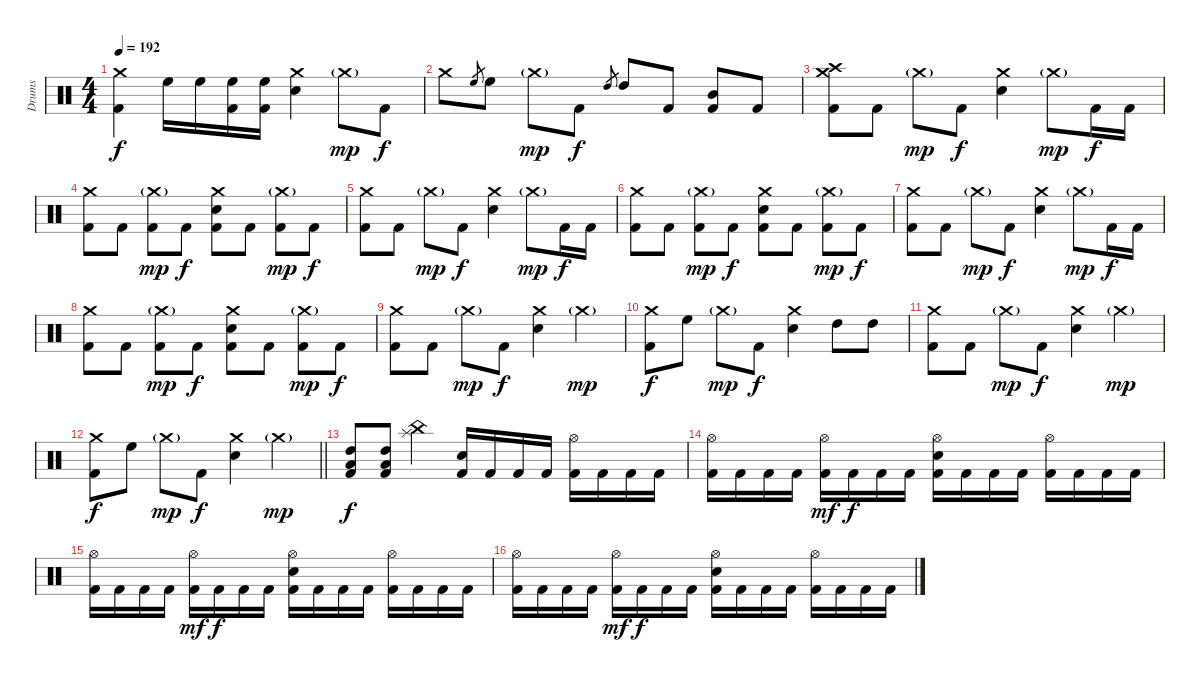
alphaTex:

\track ("Drums" "Drums") {instrument percussion}
\staff {score}
\articulation defaults
\ts (4 4)
\tempo 192
\clef neutral
\ks c
("Crash medium (hit)" "Kick (hit) 2").4{dy f} "High Floor Tom (hit)".16 "High Floor Tom (hit)".16 ("High Floor Tom (hit)" "Kick (hit) 2").16 ("High Floor Tom (hit)" "Kick (hit) 2").16 ("Crash medium (hit)" "Electric Snare (hit)").4 "Crash medium (hit)"{g}.8{dy mp} "Kick (hit) 2".8{dy f} |
"Crash medium (hit)".8 "High Floor Tom (hit)".8{gr} "High Floor Tom (hit)".8 "Crash medium (hit)"{g}.8{dy mp} "Kick (hit) 2".8{dy f} "High Tom (hit)".8{gr} "High Tom (hit)".8 "Kick (hit) 2".8 ("Mid Tom (hit)" "Kick (hit) 2").8 "Kick (hit) 2".8 |
("Crash high (hit)" "Crash medium (hit)" "Kick (hit) 2").8 "Kick (hit) 2".8 "Crash medium (hit)"{g}.8{dy mp} "Kick (hit) 2".8{dy f} ("Crash medium (hit)" "Electric Snare (hit)").4 "Crash medium (hit)"{g}.8{dy mp} "Kick (hit) 2".16{dy f} "Kick (hit) 2".16 |
("Crash medium (hit)" "Kick (hit) 2").8 "Kick (hit) 2".8 ("Crash medium (hit)"{g} "Kick (hit) 2").8{dy mp} "Kick (hit) 2".8{dy f} ("Crash medium (hit)" "Electric Snare (hit)" "Kick (hit) 2").8 "Kick (hit) 2".8 ("Crash medium (hit)"{g} "Kick (hit) 2").8{dy mp} "Kick (hit) 2".8{dy f} |
("Crash medium (hit)" "Kick (hit) 2").8 "Kick (hit) 2".8 "Crash medium (hit)"{g}.8{dy mp} "Kick (hit) 2".8{dy f} ("Crash medium (hit)" "Electric Snare (hit)").4 "Crash medium (hit)"{g}.8{dy mp} "Kick (hit) 2".16{dy f} "Kick (hit) 2".16 |
("Crash medium (hit)" "Kick (hit) 2").8 "Kick (hit) 2".8 ("Crash medium (hit)"{g} "Kick (hit) 2").8{dy mp} "Kick (hit) 2".8{dy f} ("Crash medium (hit)" "Electric Snare (hit)" "Kick (hit) 2").8 "Kick (hit) 2".8 ("Crash medium (hit)"{g} "Kick (hit) 2").8{dy mp} "Kick (hit) 2".8{dy f} |
("Crash medium (hit)" "Kick (hit) 2").8 "Kick (hit) 2".8 "Crash medium (hit)"{g}.8{dy mp} "Kick (hit) 2".8{dy f} ("Crash medium (hit)" "Electric Snare (hit)").4 "Crash medium (hit)"{g}.8{dy mp} "Kick (hit) 2".16{dy f} "Kick (hit) 2".16 |
("Crash medium (hit)" "Kick (hit) 2").8 "Kick (hit) 2".8 ("Crash medium (hit)"{g} "Kick (hit) 2").8{dy mp} "Kick (hit) 2".8{dy f} ("Crash medium (hit)" "Electric Snare (hit)" "Kick (hit) 2").8 "Kick (hit) 2".8 ("Crash medium (hit)"{g} "Kick (hit) 2").8{dy mp} "Kick (hit) 2".8{dy f} |
("Crash medium (hit)" "Kick (hit) 2").8 "Kick (hit) 2".8 "Crash medium (hit)"{g}.8{dy mp} "Kick (hit) 2".8{dy f} ("Crash medium (hit)" "Electric Snare (hit)").4 "Crash medium (hit)"{g}.4{dy mp} |
("Crash medium (hit)" "Kick (hit) 2").8{dy f} "High Floor Tom (hit)".8 "Crash medium (hit)"{g}.8{dy mp} "Kick (hit) 2".8{dy f} ("Crash medium (hit)" "Electric Snare (hit)").4 "High Tom (hit)".8 "High Tom (hit)".8 |
("Crash medium (hit)" "Kick (hit) 2").8 "Kick (hit) 2".8 "Crash medium (hit)"{g}.8{dy mp} "Kick (hit) 2".8{dy f} ("Crash medium (hit)" "Electric Snare (hit)").4 "Crash medium (hit)"{g}.4{dy mp} |
\barLineRight lightlight
("Crash medium (hit)" "Kick (hit) 2").8{dy f} "High Floor Tom (hit)".8 "Crash medium (hit)"{g}.8{dy mp} "Kick (hit) 2".8{dy f} ("Crash medium (hit)" "Electric Snare (hit)").4 "Crash medium (hit)"{g}.4{dy mp} |
("High Tom (hit)" "Low Tom (hit)" "Kick (hit) 2").8{dy f} ("High Tom (hit)" "Low Tom (hit)" "Kick (hit) 2").8 ("China (hit)" "Splash (hit)").4 ("Electric Snare (hit)" "Kick (hit) 2").16 "Kick (hit) 2".16 "Kick (hit) 2".16 "Kick (hit) 2".16 ("Hi-Hat (open)" "Kick (hit) 2").16 "Kick (hit) 2".16 "Kick (hit) 2".16 "Kick (hit) 2".16 |
("Hi-Hat (open)" "Kick (hit) 2").16 "Kick (hit) 2".16 "Kick (hit) 2".16 "Kick (hit) 2".16 ("Hi-Hat (open)" "Kick (hit) 2").16{dy mf} "Kick (hit) 2".16{dy f} "Kick (hit) 2".16 "Kick (hit) 2".16 ("Hi-Hat (open)" "Electric Snare (hit)" "Kick (hit) 2").16 "Kick (hit) 2".16 "Kick (hit) 2".16 "Kick (hit) 2".16 ("Hi-Hat (open)" "Kick (hit) 2").16 "Kick (hit) 2".16 "Kick (hit) 2".16 "Kick (hit) 2".16 |
("Hi-Hat (open)" "Kick (hit) 2").16 "Kick (hit) 2".16 "Kick (hit) 2".16 "Kick (hit) 2".16 ("Hi-Hat (open)" "Kick (hit) 2").16{dy mf} "Kick (hit) 2".16{dy f} "Kick (hit) 2".16 "Kick (hit) 2".16 ("Hi-Hat (open)" "Electric Snare (hit)" "Kick (hit) 2").16 "Kick (hit) 2".16 "Kick (hit) 2".16 "Kick (hit) 2".16 ("Hi-Hat (open)" "Kick (hit) 2").16 "Kick (hit) 2".16 "Kick (hit) 2".16 "Kick (hit) 2".16 |
("Hi-Hat (open)" "Kick (hit) 2").16 "Kick (hit) 2".16 "Kick (hit) 2".16 "Kick (hit) 2".16 ("Hi-Hat (open)" "Kick (hit) 2").16{dy mf} "Kick (hit) 2".16{dy f} "Kick (hit) 2".16 "Kick (hit) 2".16 ("Hi-Hat (open)" "Electric Snare (hit)" "Kick (hit) 2").16 "Kick (hit) 2".16 "Kick (hit) 2".16 "Kick (hit) 2".16 ("Hi-Hat (open)" "Kick (hit) 2").16 "Kick (hit) 2".16 "Kick (hit) 2".16 "Kick (hit) 2".16
